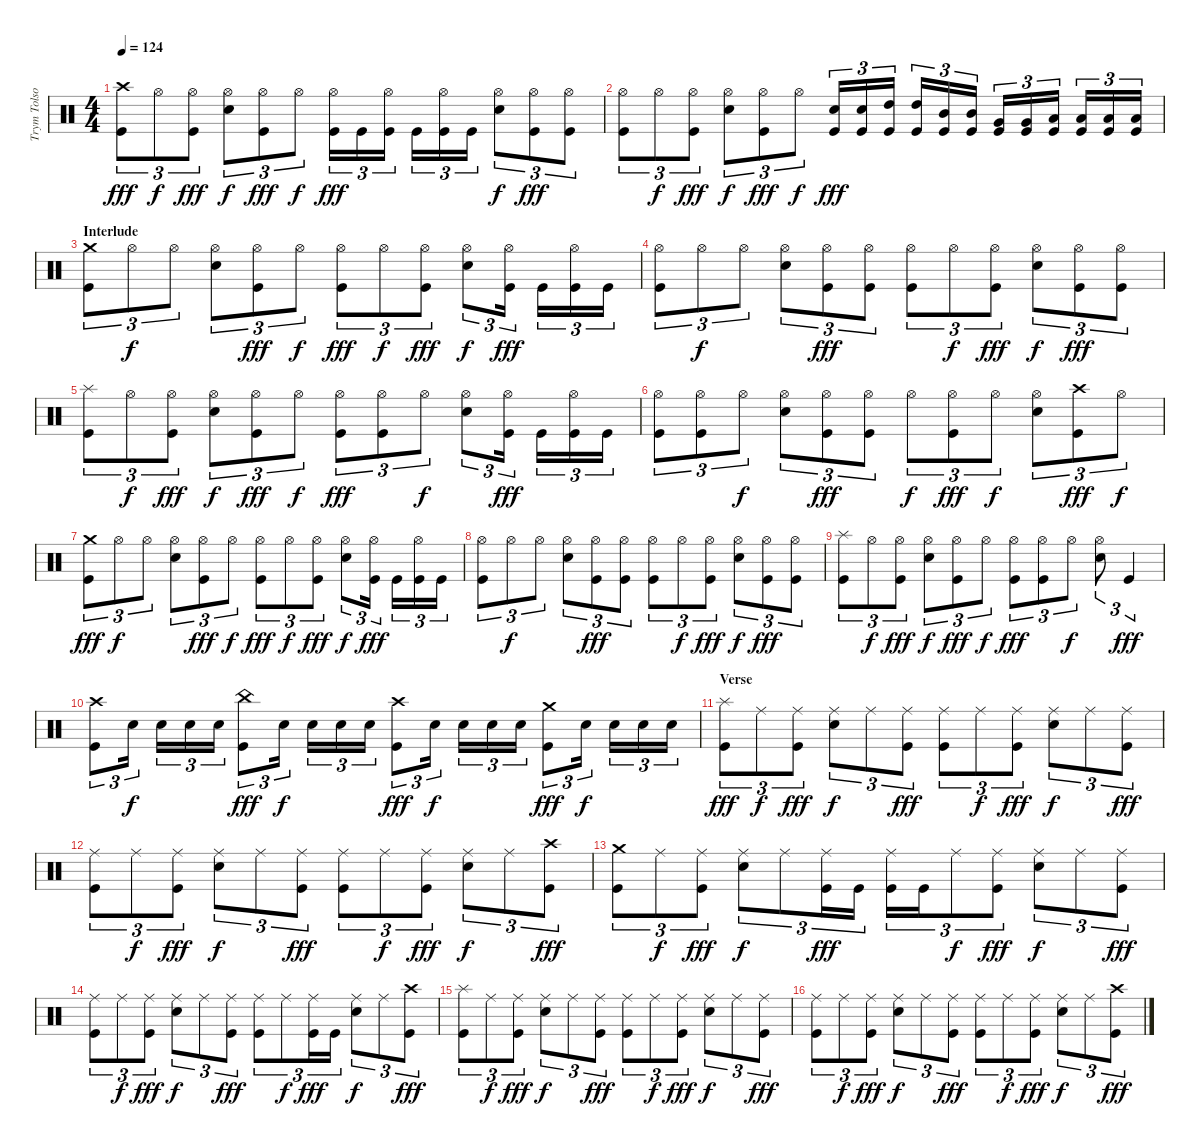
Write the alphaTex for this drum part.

\track ("Trym Tolson" "Trym Tolso") {instrument percussion}
\staff {score}
\articulation defaults
\ts (4 4)
\tempo 124
\clef neutral
\ks c
("Crash high (hit)" "Kick (hit)").8{tu (3 2) dy fff} "Hi-Hat (open)".8{tu (3 2) dy f} ("Hi-Hat (open)" "Kick (hit)").8{tu (3 2) dy fff} ("Hi-Hat (open)" "Electric Snare (hit)").8{tu (3 2) dy f} ("Hi-Hat (open)" "Kick (hit)").8{tu (3 2) dy fff} "Hi-Hat (open)".8{tu (3 2) dy f} ("Hi-Hat (open)" "Kick (hit)").16{tu (3 2) dy fff} "Kick (hit)".16{tu (3 2)} ("Hi-Hat (open)" "Kick (hit)").16{tu (3 2)} "Kick (hit)".16{tu (3 2)} ("Hi-Hat (open)" "Kick (hit)").16{tu (3 2)} "Kick (hit)".16{tu (3 2)} ("Hi-Hat (open)" "Electric Snare (hit)").8{tu (3 2) dy f} ("Hi-Hat (open)" "Kick (hit)").8{tu (3 2) dy fff} ("Hi-Hat (open)" "Kick (hit)").8{tu (3 2)} |
("Hi-Hat (open)" "Kick (hit)").8{tu (3 2)} "Hi-Hat (open)".8{tu (3 2) dy f} ("Hi-Hat (open)" "Kick (hit)").8{tu (3 2) dy fff} ("Hi-Hat (open)" "Electric Snare (hit)").8{tu (3 2) dy f} ("Hi-Hat (open)" "Kick (hit)").8{tu (3 2) dy fff} "Hi-Hat (open)".8{tu (3 2) dy f} ("Electric Snare (hit)" "Kick (hit)").16{tu (3 2) dy fff} ("Electric Snare (hit)" "Kick (hit)").16{tu (3 2)} ("High Tom (hit)" "Kick (hit)").16{tu (3 2)} ("High Tom (hit)" "Kick (hit)").16{tu (3 2)} ("Mid Tom (hit)" "Kick (hit)").16{tu (3 2)} ("Mid Tom (hit)" "Kick (hit)").16{tu (3 2)} ("Very Low Tom (hit)" "Kick (hit)").16{tu (3 2)} ("Very Low Tom (hit)" "Kick (hit)").16{tu (3 2)} ("Low Floor Tom (hit)" "Kick (hit)").16{tu (3 2)} ("Low Floor Tom (hit)" "Kick (hit)").16{tu (3 2)} ("Low Floor Tom (hit)" "Kick (hit)").16{tu (3 2)} ("Low Floor Tom (hit)" "Kick (hit)").16{tu (3 2)} |
\section ("" "Interlude")
("Crash medium (hit)" "Kick (hit)").8{tu (3 2)} "Hi-Hat (open)".8{tu (3 2) dy f} "Hi-Hat (open)".8{tu (3 2)} ("Hi-Hat (open)" "Electric Snare (hit)").8{tu (3 2)} ("Hi-Hat (open)" "Kick (hit)").8{tu (3 2) dy fff} "Hi-Hat (open)".8{tu (3 2) dy f} ("Hi-Hat (open)" "Kick (hit)").8{tu (3 2) dy fff} "Hi-Hat (open)".8{tu (3 2) dy f} ("Hi-Hat (open)" "Kick (hit)").8{tu (3 2) dy fff} ("Hi-Hat (open)" "Electric Snare (hit)").8{tu (3 2) dy f} ("Hi-Hat (open)" "Kick (hit)").16{tu (3 2) dy fff} "Kick (hit)".16{tu (3 2)} ("Hi-Hat (open)" "Kick (hit)").16{tu (3 2)} "Kick (hit)".16{tu (3 2)} |
("Hi-Hat (open)" "Kick (hit)").8{tu (3 2)} "Hi-Hat (open)".8{tu (3 2) dy f} "Hi-Hat (open)".8{tu (3 2)} ("Hi-Hat (open)" "Electric Snare (hit)").8{tu (3 2)} ("Hi-Hat (open)" "Kick (hit)").8{tu (3 2) dy fff} ("Hi-Hat (open)" "Kick (hit)").8{tu (3 2)} ("Hi-Hat (open)" "Kick (hit)").8{tu (3 2)} "Hi-Hat (open)".8{tu (3 2) dy f} ("Hi-Hat (open)" "Kick (hit)").8{tu (3 2) dy fff} ("Hi-Hat (open)" "Electric Snare (hit)").8{tu (3 2) dy f} ("Hi-Hat (open)" "Kick (hit)").8{tu (3 2) dy fff} ("Hi-Hat (open)" "Kick (hit)").8{tu (3 2)} |
("Splash (hit)" "Kick (hit)").8{tu (3 2)} "Hi-Hat (open)".8{tu (3 2) dy f} ("Hi-Hat (open)" "Kick (hit)").8{tu (3 2) dy fff} ("Hi-Hat (open)" "Electric Snare (hit)").8{tu (3 2) dy f} ("Hi-Hat (open)" "Kick (hit)").8{tu (3 2) dy fff} "Hi-Hat (open)".8{tu (3 2) dy f} ("Hi-Hat (open)" "Kick (hit)").8{tu (3 2) dy fff} ("Hi-Hat (open)" "Kick (hit)").8{tu (3 2)} "Hi-Hat (open)".8{tu (3 2) dy f} ("Hi-Hat (open)" "Electric Snare (hit)").8{tu (3 2)} ("Hi-Hat (open)" "Kick (hit)").16{tu (3 2) dy fff} "Kick (hit)".16{tu (3 2)} ("Hi-Hat (open)" "Kick (hit)").16{tu (3 2)} "Kick (hit)".16{tu (3 2)} |
("Hi-Hat (open)" "Kick (hit)").8{tu (3 2)} ("Hi-Hat (open)" "Kick (hit)").8{tu (3 2)} "Hi-Hat (open)".8{tu (3 2) dy f} ("Hi-Hat (open)" "Electric Snare (hit)").8{tu (3 2)} ("Hi-Hat (open)" "Kick (hit)").8{tu (3 2) dy fff} ("Hi-Hat (open)" "Kick (hit)").8{tu (3 2)} "Hi-Hat (open)".8{tu (3 2) dy f} ("Hi-Hat (open)" "Kick (hit)").8{tu (3 2) dy fff} "Hi-Hat (open)".8{tu (3 2) dy f} ("Hi-Hat (open)" "Electric Snare (hit)").8{tu (3 2)} ("Crash high (hit)" "Kick (hit)").8{tu (3 2) dy fff} "Hi-Hat (open)".8{tu (3 2) dy f} |
("Crash medium (hit)" "Kick (hit)").8{tu (3 2) dy fff} "Hi-Hat (open)".8{tu (3 2) dy f} "Hi-Hat (open)".8{tu (3 2)} ("Hi-Hat (open)" "Electric Snare (hit)").8{tu (3 2)} ("Hi-Hat (open)" "Kick (hit)").8{tu (3 2) dy fff} "Hi-Hat (open)".8{tu (3 2) dy f} ("Hi-Hat (open)" "Kick (hit)").8{tu (3 2) dy fff} "Hi-Hat (open)".8{tu (3 2) dy f} ("Hi-Hat (open)" "Kick (hit)").8{tu (3 2) dy fff} ("Hi-Hat (open)" "Electric Snare (hit)").8{tu (3 2) dy f} ("Hi-Hat (open)" "Kick (hit)").16{tu (3 2) dy fff} "Kick (hit)".16{tu (3 2)} ("Hi-Hat (open)" "Kick (hit)").16{tu (3 2)} "Kick (hit)".16{tu (3 2)} |
("Hi-Hat (open)" "Kick (hit)").8{tu (3 2)} "Hi-Hat (open)".8{tu (3 2) dy f} "Hi-Hat (open)".8{tu (3 2)} ("Hi-Hat (open)" "Electric Snare (hit)").8{tu (3 2)} ("Hi-Hat (open)" "Kick (hit)").8{tu (3 2) dy fff} ("Hi-Hat (open)" "Kick (hit)").8{tu (3 2)} ("Hi-Hat (open)" "Kick (hit)").8{tu (3 2)} "Hi-Hat (open)".8{tu (3 2) dy f} ("Hi-Hat (open)" "Kick (hit)").8{tu (3 2) dy fff} ("Hi-Hat (open)" "Electric Snare (hit)").8{tu (3 2) dy f} ("Hi-Hat (open)" "Kick (hit)").8{tu (3 2) dy fff} ("Hi-Hat (open)" "Kick (hit)").8{tu (3 2)} |
("Splash (hit)" "Kick (hit)").8{tu (3 2)} "Hi-Hat (open)".8{tu (3 2) dy f} ("Hi-Hat (open)" "Kick (hit)").8{tu (3 2) dy fff} ("Hi-Hat (open)" "Electric Snare (hit)").8{tu (3 2) dy f} ("Hi-Hat (open)" "Kick (hit)").8{tu (3 2) dy fff} "Hi-Hat (open)".8{tu (3 2) dy f} ("Hi-Hat (open)" "Kick (hit)").8{tu (3 2) dy fff} ("Hi-Hat (open)" "Kick (hit)").8{tu (3 2)} "Hi-Hat (open)".8{tu (3 2) dy f} ("Hi-Hat (open)" "Electric Snare (hit)").8{tu (3 2)} "Kick (hit)".4{tu (3 2) dy fff} |
("Crash high (hit)" "Kick (hit)").8{tu (3 2)} "Electric Snare (hit)".16{tu (3 2) dy f} "Electric Snare (hit)".16{tu (3 2)} "Electric Snare (hit)".16{tu (3 2)} "Electric Snare (hit)".16{tu (3 2)} ("China (hit)" "Kick (hit)").8{tu (3 2) dy fff} "Electric Snare (hit)".16{tu (3 2) dy f} "Electric Snare (hit)".16{tu (3 2)} "Electric Snare (hit)".16{tu (3 2)} "Electric Snare (hit)".16{tu (3 2)} ("Crash high (hit)" "Kick (hit)").8{tu (3 2) dy fff} "Electric Snare (hit)".16{tu (3 2) dy f} "Electric Snare (hit)".16{tu (3 2)} "Electric Snare (hit)".16{tu (3 2)} "Electric Snare (hit)".16{tu (3 2)} ("Crash medium (hit)" "Kick (hit)").8{tu (3 2) dy fff} "Electric Snare (hit)".16{tu (3 2) dy f} "Electric Snare (hit)".16{tu (3 2)} "Electric Snare (hit)".16{tu (3 2)} "Electric Snare (hit)".16{tu (3 2)} |
\section ("" "Verse")
("Splash (hit)" "Kick (hit)").8{tu (3 2) dy fff} "Ride (middle)".8{tu (3 2) dy f} ("Ride (middle)" "Kick (hit)").8{tu (3 2) dy fff} ("Ride (middle)" "Electric Snare (hit)").8{tu (3 2) dy f} "Ride (middle)".8{tu (3 2)} ("Ride (middle)" "Kick (hit)").8{tu (3 2) dy fff} ("Ride (middle)" "Kick (hit)").8{tu (3 2)} "Ride (middle)".8{tu (3 2) dy f} ("Ride (middle)" "Kick (hit)").8{tu (3 2) dy fff} ("Ride (middle)" "Electric Snare (hit)").8{tu (3 2) dy f} "Ride (middle)".8{tu (3 2)} ("Ride (middle)" "Kick (hit)").8{tu (3 2) dy fff} |
("Ride (middle)" "Kick (hit)").8{tu (3 2)} "Ride (middle)".8{tu (3 2) dy f} ("Ride (middle)" "Kick (hit)").8{tu (3 2) dy fff} ("Ride (middle)" "Electric Snare (hit)").8{tu (3 2) dy f} "Ride (middle)".8{tu (3 2)} ("Ride (middle)" "Kick (hit)").8{tu (3 2) dy fff} ("Ride (middle)" "Kick (hit)").8{tu (3 2)} "Ride (middle)".8{tu (3 2) dy f} ("Ride (middle)" "Kick (hit)").8{tu (3 2) dy fff} ("Ride (middle)" "Electric Snare (hit)").8{tu (3 2) dy f} "Ride (middle)".8{tu (3 2)} ("Crash high (hit)" "Kick (hit)").8{tu (3 2) dy fff} |
("Crash medium (hit)" "Kick (hit)").8{tu (3 2)} "Ride (middle)".8{tu (3 2) dy f} ("Ride (middle)" "Kick (hit)").8{tu (3 2) dy fff} ("Ride (middle)" "Electric Snare (hit)").8{tu (3 2) dy f} "Ride (middle)".8{tu (3 2)} ("Ride (middle)" "Kick (hit)").16{tu (3 2) dy fff} "Kick (hit)".16{tu (3 2)} ("Ride (middle)" "Kick (hit)").16{tu (3 2)} "Kick (hit)".16{tu (3 2)} "Ride (middle)".8{tu (3 2) dy f} ("Ride (middle)" "Kick (hit)").8{tu (3 2) dy fff} ("Ride (middle)" "Electric Snare (hit)").8{tu (3 2) dy f} "Ride (middle)".8{tu (3 2)} ("Ride (middle)" "Kick (hit)").8{tu (3 2) dy fff} |
("Ride (middle)" "Kick (hit)").8{tu (3 2)} "Ride (middle)".8{tu (3 2) dy f} ("Ride (middle)" "Kick (hit)").8{tu (3 2) dy fff} ("Ride (middle)" "Electric Snare (hit)").8{tu (3 2) dy f} "Ride (middle)".8{tu (3 2)} ("Ride (middle)" "Kick (hit)").8{tu (3 2) dy fff} ("Ride (middle)" "Kick (hit)").8{tu (3 2)} "Ride (middle)".8{tu (3 2) dy f} ("Ride (middle)" "Kick (hit)").16{tu (3 2) dy fff} "Kick (hit)".16{tu (3 2)} ("Ride (middle)" "Electric Snare (hit)").8{tu (3 2) dy f} "Ride (middle)".8{tu (3 2)} ("Crash high (hit)" "Kick (hit)").8{tu (3 2) dy fff} |
("Splash (hit)" "Kick (hit)").8{tu (3 2)} "Ride (middle)".8{tu (3 2) dy f} ("Ride (middle)" "Kick (hit)").8{tu (3 2) dy fff} ("Ride (middle)" "Electric Snare (hit)").8{tu (3 2) dy f} "Ride (middle)".8{tu (3 2)} ("Ride (middle)" "Kick (hit)").8{tu (3 2) dy fff} ("Ride (middle)" "Kick (hit)").8{tu (3 2)} "Ride (middle)".8{tu (3 2) dy f} ("Ride (middle)" "Kick (hit)").8{tu (3 2) dy fff} ("Ride (middle)" "Electric Snare (hit)").8{tu (3 2) dy f} "Ride (middle)".8{tu (3 2)} ("Ride (middle)" "Kick (hit)").8{tu (3 2) dy fff} |
("Ride (middle)" "Kick (hit)").8{tu (3 2)} "Ride (middle)".8{tu (3 2) dy f} ("Ride (middle)" "Kick (hit)").8{tu (3 2) dy fff} ("Ride (middle)" "Electric Snare (hit)").8{tu (3 2) dy f} "Ride (middle)".8{tu (3 2)} ("Ride (middle)" "Kick (hit)").8{tu (3 2) dy fff} ("Ride (middle)" "Kick (hit)").8{tu (3 2)} "Ride (middle)".8{tu (3 2) dy f} ("Ride (middle)" "Kick (hit)").8{tu (3 2) dy fff} ("Ride (middle)" "Electric Snare (hit)").8{tu (3 2) dy f} "Ride (middle)".8{tu (3 2)} ("Crash high (hit)" "Kick (hit)").8{tu (3 2) dy fff}
